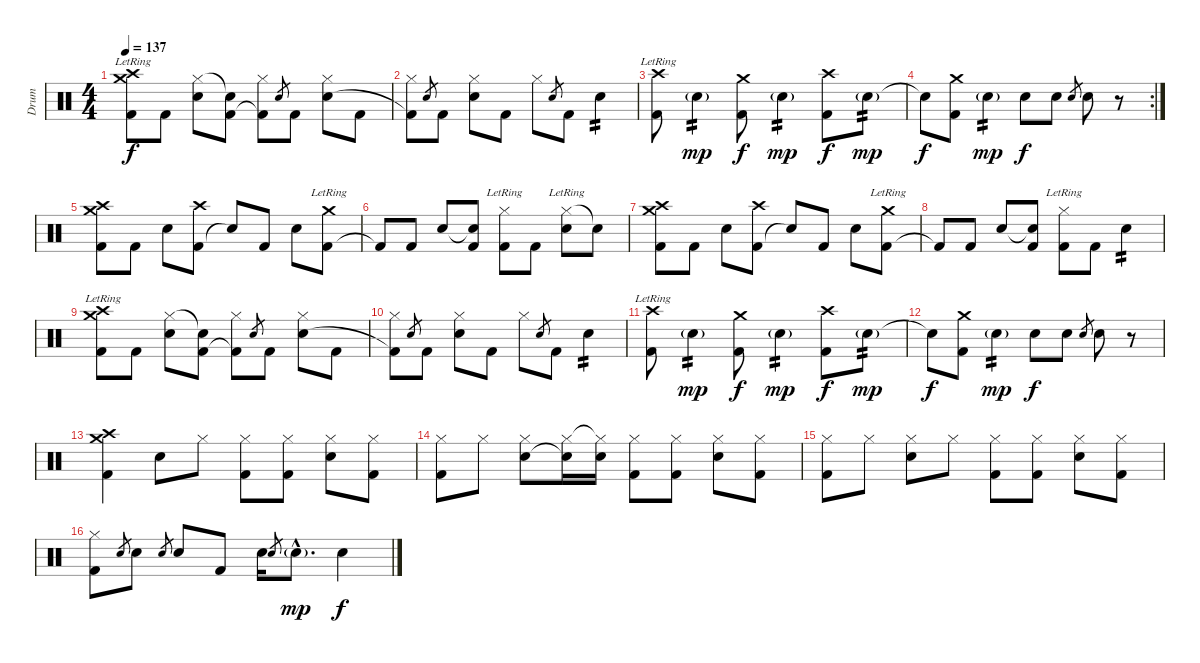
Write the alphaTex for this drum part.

\track ("Drum" "Drum") {instrument percussion}
\staff {score}
\articulation defaults
\ts (4 4)
\tempo 137
\clef neutral
\ks c
("Kick (hit) 2" "Crash high (hit)"{lr} "Crash medium (hit)"{lr}).8{dy f} "Kick (hit) 2".8 ("Hi-Hat (closed)" "Electric Snare (hit)").8 ("Snare (hit)"{t} "Kick (hit) 2").8 ("Hi-Hat (closed)" "Kick (hit) 2"{t}).8 "Electric Snare (hit)".8{gr} "Kick (hit) 2".8 ("Hi-Hat (closed)" "Electric Snare (hit)").8 "Kick (hit) 2".8 |
("Hi-Hat (closed)" "Kick (hit) 2"{t}).8 "Electric Snare (hit)".8{gr} "Kick (hit) 2".8 ("Hi-Hat (closed)" "Electric Snare (hit)").8 "Kick (hit) 2".8 "Hi-Hat (closed)".8 "Electric Snare (hit)".8{gr} "Kick (hit) 2".8 "Electric Snare (hit)".4{tp 2} |
("Kick (hit) 2" "Crash high (hit)"{lr}).8 "Electric Snare (hit)"{g}.4{tp 2 dy mp} ("Kick (hit) 2" "Crash medium (hit)").8{dy f} "Electric Snare (hit)"{g}.4{tp 2 dy mp} ("Kick (hit) 2" "Crash high (hit)").8{dy f} "Electric Snare (hit)"{g}.8{tp 2 dy mp} |
\rc 2 "Snare (hit)"{t}.8{dy f}
("Kick (hit) 2" "Crash medium (hit)").8 "Electric Snare (hit)"{g}.4{tp 2 dy mp} "Electric Snare (hit)".8{dy f} "Electric Snare (hit)".8 "Electric Snare (hit)".8{gr} "Electric Snare (hit)".8 r.8 |
\section ("" "")
("Kick (hit) 2" "Crash high (hit)" "Crash medium (hit)").8 "Kick (hit) 2".8 "Electric Snare (hit)".8 ("Kick (hit) 2" "Crash high (hit)").8 "Snare (hit)"{t}.8 "Kick (hit) 2".8 "Electric Snare (hit)".8 ("Kick (hit) 2" "Crash medium (hit)"{lr}).8 |
"Kick (hit) 2"{t}.8 "Kick (hit) 2".8 "Electric Snare (hit)".8 ("Snare (hit)"{t} "Kick (hit) 2").8 ("Hi-Hat (closed)"{lr} "Kick (hit) 2").8 "Kick (hit) 2".8 ("Hi-Hat (closed)"{lr} "Electric Snare (hit)"{lr}).8 "Snare (hit)"{t}.8 |
("Kick (hit) 2" "Crash high (hit)" "Crash medium (hit)").8 "Kick (hit) 2".8 "Electric Snare (hit)".8 ("Kick (hit) 2" "Crash high (hit)").8 "Snare (hit)"{t}.8 "Kick (hit) 2".8 "Electric Snare (hit)".8 ("Kick (hit) 2" "Crash medium (hit)"{lr}).8 |
"Kick (hit) 2"{t}.8 "Kick (hit) 2".8 "Electric Snare (hit)".8 ("Snare (hit)"{t} "Kick (hit) 2").8 ("Hi-Hat (closed)"{lr} "Kick (hit) 2").8 "Kick (hit) 2".8 "Electric Snare (hit)".4{tp 2} |
("Kick (hit) 2" "Crash high (hit)"{lr} "Crash medium (hit)"{lr}).8 "Kick (hit) 2".8 ("Hi-Hat (closed)" "Electric Snare (hit)").8 ("Snare (hit)"{t} "Kick (hit) 2").8 ("Hi-Hat (closed)" "Kick (hit) 2"{t}).8 "Electric Snare (hit)".8{gr} "Kick (hit) 2".8 ("Hi-Hat (closed)" "Electric Snare (hit)").8 "Kick (hit) 2".8 |
("Hi-Hat (closed)" "Kick (hit) 2"{t}).8 "Electric Snare (hit)".8{gr} "Kick (hit) 2".8 ("Hi-Hat (closed)" "Electric Snare (hit)").8 "Kick (hit) 2".8 "Hi-Hat (closed)".8 "Electric Snare (hit)".8{gr} "Kick (hit) 2".8 "Electric Snare (hit)".4{tp 2} |
("Kick (hit) 2" "Crash high (hit)"{lr}).8 "Electric Snare (hit)"{g}.4{tp 2 dy mp} ("Kick (hit) 2" "Crash medium (hit)").8{dy f} "Electric Snare (hit)"{g}.4{tp 2 dy mp} ("Kick (hit) 2" "Crash high (hit)").8{dy f} "Electric Snare (hit)"{g}.8{tp 2 dy mp} |
"Snare (hit)"{t}.8{dy f} ("Kick (hit) 2" "Crash medium (hit)").8 "Electric Snare (hit)"{g}.4{tp 2 dy mp} "Electric Snare (hit)".8{dy f} "Electric Snare (hit)".8 "Electric Snare (hit)".8{gr} "Electric Snare (hit)".8 r.8 |
("Kick (hit) 2" "Crash high (hit)" "Crash medium (hit)").4 "Electric Snare (hit)".8 "Hi-Hat (closed)".8 ("Hi-Hat (closed)" "Kick (hit) 2").8 ("Hi-Hat (closed)" "Kick (hit) 2").8 ("Hi-Hat (closed)" "Electric Snare (hit)").8 ("Hi-Hat (closed)" "Kick (hit) 2").8 |
("Hi-Hat (closed)" "Kick (hit) 2").8 "Hi-Hat (closed)".8 ("Hi-Hat (closed)" "Electric Snare (hit)").8 ("Hi-Hat (closed)" "Electric Snare (hit)"{t}).16 ("Hi-Hat (closed)"{t} "Electric Snare (hit)").16 ("Hi-Hat (closed)" "Kick (hit) 2").8 ("Hi-Hat (closed)" "Kick (hit) 2").8 ("Hi-Hat (closed)" "Electric Snare (hit)").8 ("Hi-Hat (closed)" "Kick (hit) 2").8 |
("Hi-Hat (closed)" "Kick (hit) 2").8 "Hi-Hat (closed)".8 ("Hi-Hat (closed)" "Electric Snare (hit)").8 "Hi-Hat (closed)".8 ("Hi-Hat (closed)" "Kick (hit) 2").8 ("Hi-Hat (closed)" "Kick (hit) 2").8 ("Hi-Hat (closed)" "Electric Snare (hit)").8 ("Hi-Hat (closed)" "Kick (hit) 2").8 |
("Hi-Hat (closed)" "Kick (hit) 2").8 "Electric Snare (hit)".8{gr} "Electric Snare (hit)".8 "Electric Snare (hit)".8{gr} "Electric Snare (hit)".8 "Kick (hit) 2".8 "Electric Snare (hit)".16 "Electric Snare (hit)".8{gr} "Electric Snare (hit)"{g hac}.8{d dy mp} "Electric Snare (hit)".4{dy f}
